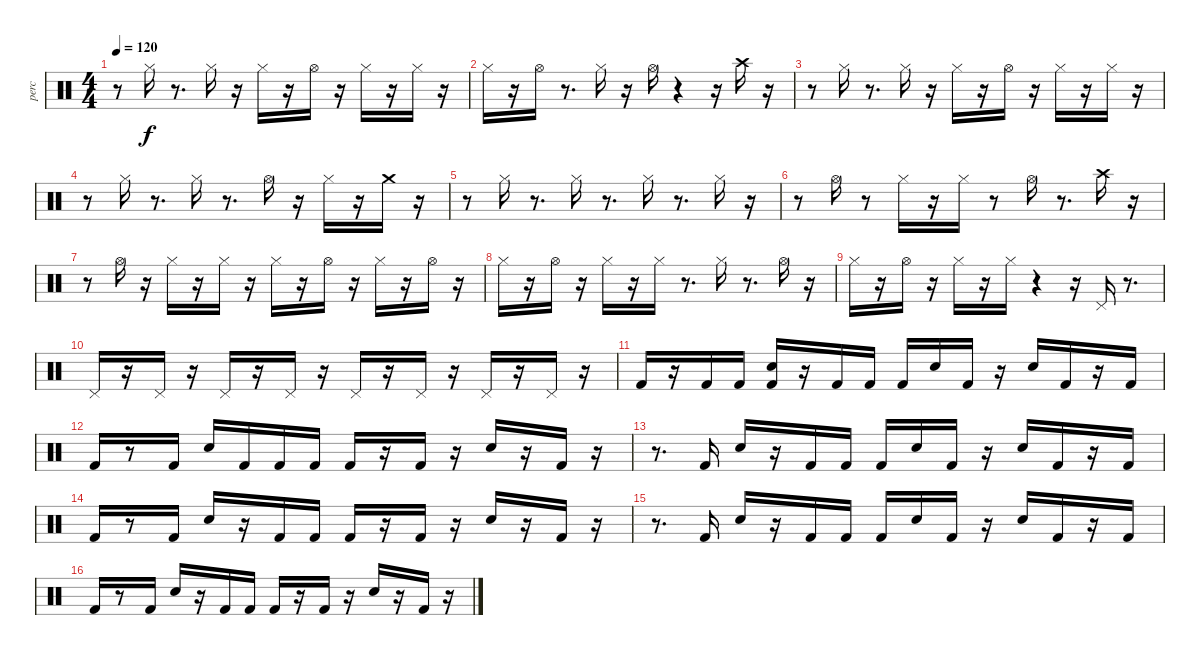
\track ("perc" "perc") {instrument percussion}
\staff {score}
\articulation defaults
\ts (4 4)
\tempo 120
\clef neutral
\ks c
r.8{dy f} "Hi-Hat (closed)".16 r.8{d} "Hi-Hat (closed)".16 r.16 "Hi-Hat (closed)".16 r.16 "Hi-Hat (open)".16 r.16 "Hi-Hat (closed)".16 r.16 "Hi-Hat (closed)".16 r.16 |
"Hi-Hat (closed)".16 r.16 "Hi-Hat (open)".16 r.8{d} "Hi-Hat (closed)".16 r.16 "Hi-Hat (open)".16 r.4 r.16 "Crash high (hit)".16 r.16 |
r.8 "Hi-Hat (closed)".16 r.8{d} "Hi-Hat (closed)".16 r.16 "Hi-Hat (closed)".16 r.16 "Hi-Hat (open)".16 r.16 "Hi-Hat (closed)".16 r.16 "Hi-Hat (closed)".16 r.16 |
r.8 "Hi-Hat (closed)".16 r.8{d} "Hi-Hat (closed)".16 r.8{d} "Hi-Hat (open)".16 r.16 "Hi-Hat (closed)".16 r.16 "Crash medium (hit)".16 r.16 |
r.8 "Hi-Hat (closed)".16 r.8{d} "Hi-Hat (closed)".16 r.8{d} "Hi-Hat (closed)".16 r.8{d} "Hi-Hat (closed)".16 r.16 |
r.8 "Hi-Hat (open)".16 r.8 "Hi-Hat (closed)".16 r.16 "Hi-Hat (closed)".16 r.8 "Hi-Hat (open)".16 r.8{d} "Crash high (hit)".16 r.16 |
r.8 "Hi-Hat (open)".16 r.16 "Hi-Hat (closed)".16 r.16 "Hi-Hat (closed)".16 r.16 "Hi-Hat (closed)".16 r.16 "Hi-Hat (open)".16 r.16 "Hi-Hat (closed)".16 r.16 "Hi-Hat (open)".16 r.16 |
"Hi-Hat (closed)".16 r.16 "Hi-Hat (open)".16 r.16 "Hi-Hat (closed)".16 r.16 "Hi-Hat (closed)".16 r.8{d} "Hi-Hat (closed)".16 r.8{d} "Hi-Hat (open)".16 r.16 |
"Hi-Hat (closed)".16 r.16 "Hi-Hat (open)".16 r.16 "Hi-Hat (closed)".16 r.16 "Hi-Hat (closed)".16 r.4 r.16 "Pedal Hi-Hat (hit)".16 r.8{d} |
"Pedal Hi-Hat (hit)".16 r.16 "Pedal Hi-Hat (hit)".16 r.16 "Pedal Hi-Hat (hit)".16 r.16 "Pedal Hi-Hat (hit)".16 r.16 "Pedal Hi-Hat (hit)".16 r.16 "Pedal Hi-Hat (hit)".16 r.16 "Pedal Hi-Hat (hit)".16 r.16 "Pedal Hi-Hat (hit)".16 r.16 |
"Kick (hit) 2".16 r.16 "Kick (hit) 2".16 "Kick (hit) 2".16 ("Kick (hit) 2" "Electric Snare (hit)").16 r.16 "Kick (hit) 2".16 "Kick (hit) 2".16 "Kick (hit) 2".16 "Electric Snare (hit)".16 "Kick (hit) 2".16 r.16 "Electric Snare (hit)".16 "Kick (hit) 2".16 r.16 "Kick (hit) 2".16 |
"Kick (hit) 2".16 r.8 "Kick (hit) 2".16 "Electric Snare (hit)".16 "Kick (hit) 2".16 "Kick (hit) 2".16 "Kick (hit) 2".16 "Kick (hit) 2".16 r.16 "Kick (hit) 2".16 r.16 "Electric Snare (hit)".16 r.16 "Kick (hit) 2".16 r.16 |
r.8{d} "Kick (hit) 2".16 "Electric Snare (hit)".16 r.16 "Kick (hit) 2".16 "Kick (hit) 2".16 "Kick (hit) 2".16 "Electric Snare (hit)".16 "Kick (hit) 2".16 r.16 "Electric Snare (hit)".16 "Kick (hit) 2".16 r.16 "Kick (hit) 2".16 |
"Kick (hit) 2".16 r.8 "Kick (hit) 2".16 "Electric Snare (hit)".16 r.16 "Kick (hit) 2".16 "Kick (hit) 2".16 "Kick (hit) 2".16 r.16 "Kick (hit) 2".16 r.16 "Electric Snare (hit)".16 r.16 "Kick (hit) 2".16 r.16 |
r.8{d} "Kick (hit) 2".16 "Electric Snare (hit)".16 r.16 "Kick (hit) 2".16 "Kick (hit) 2".16 "Kick (hit) 2".16 "Electric Snare (hit)".16 "Kick (hit) 2".16 r.16 "Electric Snare (hit)".16 "Kick (hit) 2".16 r.16 "Kick (hit) 2".16 |
"Kick (hit) 2".16 r.8 "Kick (hit) 2".16 "Electric Snare (hit)".16 r.16 "Kick (hit) 2".16 "Kick (hit) 2".16 "Kick (hit) 2".16 r.16 "Kick (hit) 2".16 r.16 "Electric Snare (hit)".16 r.16 "Kick (hit) 2".16 r.16
